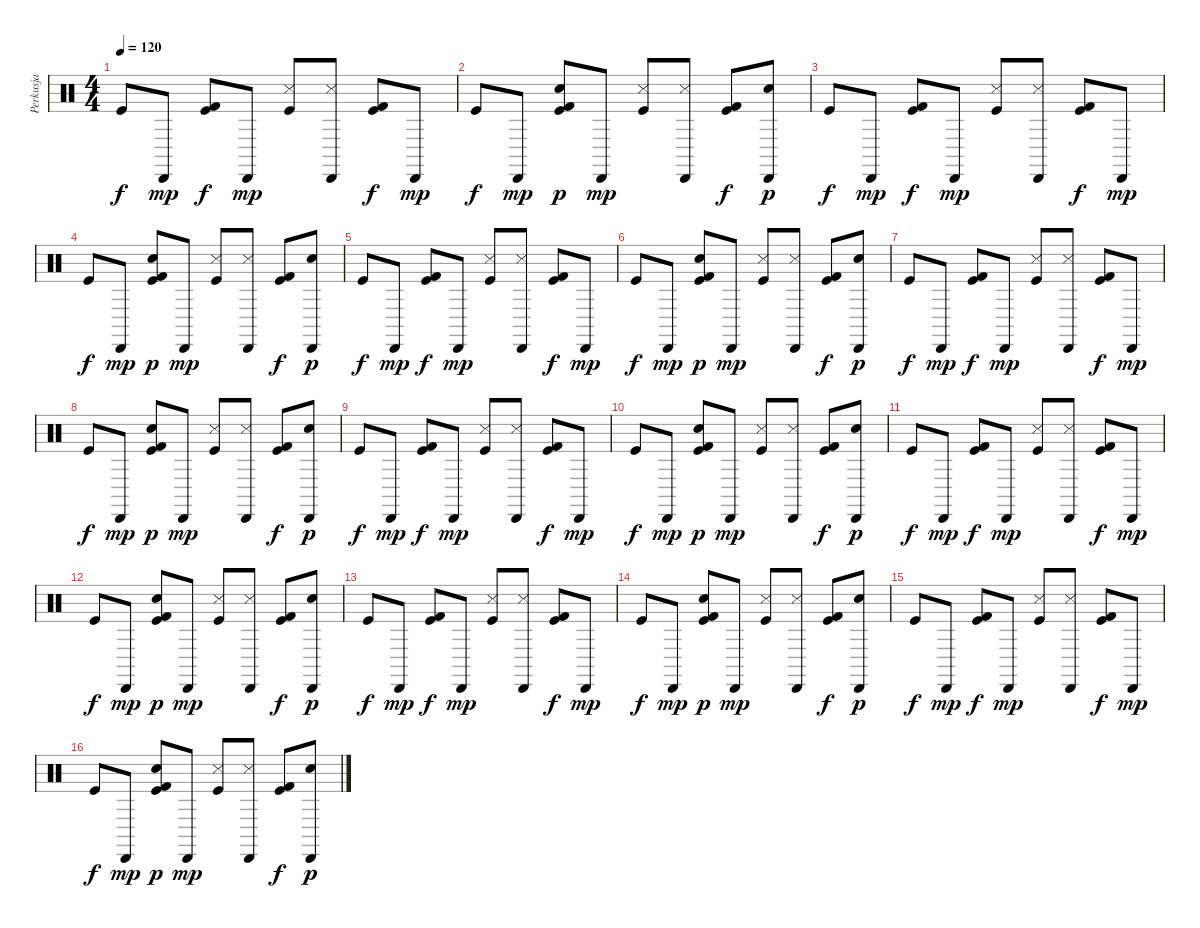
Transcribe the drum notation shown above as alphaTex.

\track ("Perkusja" "Perkusja") {instrument percussion}
\staff {score}
\articulation defaults
\ts (4 4)
\tempo 120
\clef neutral
\ks c "Kick (hit)".8{dy f} "Cabasa (hit)".8{dy mp}
("Kick (hit)" "Kick (hit) 2").8{dy f} "Cabasa (hit)".8{dy mp} ("Kick (hit)" "Metronome (hit)").8 ("Metronome (hit)" "Cabasa (hit)").8 ("Kick (hit)" "Kick (hit) 2").8{dy f} "Cabasa (hit)".8{dy mp} |
"Kick (hit)".8{dy f} "Cabasa (hit)".8{dy mp} ("Kick (hit)" "Kick (hit) 2" "Metronome (bell)").8{dy p} "Cabasa (hit)".8{dy mp} ("Kick (hit)" "Metronome (hit)").8 ("Metronome (hit)" "Cabasa (hit)").8 ("Kick (hit)" "Kick (hit) 2").8{dy f} ("Cabasa (hit)" "Metronome (bell)").8{dy p} |
"Kick (hit)".8{dy f} "Cabasa (hit)".8{dy mp} ("Kick (hit)" "Kick (hit) 2").8{dy f} "Cabasa (hit)".8{dy mp} ("Kick (hit)" "Metronome (hit)").8 ("Metronome (hit)" "Cabasa (hit)").8 ("Kick (hit)" "Kick (hit) 2").8{dy f} "Cabasa (hit)".8{dy mp} |
"Kick (hit)".8{dy f} "Cabasa (hit)".8{dy mp} ("Kick (hit)" "Kick (hit) 2" "Metronome (bell)").8{dy p} "Cabasa (hit)".8{dy mp} ("Kick (hit)" "Metronome (hit)").8 ("Metronome (hit)" "Cabasa (hit)").8 ("Kick (hit)" "Kick (hit) 2").8{dy f} ("Cabasa (hit)" "Metronome (bell)").8{dy p} |
"Kick (hit)".8{dy f} "Cabasa (hit)".8{dy mp} ("Kick (hit)" "Kick (hit) 2").8{dy f} "Cabasa (hit)".8{dy mp} ("Kick (hit)" "Metronome (hit)").8 ("Metronome (hit)" "Cabasa (hit)").8 ("Kick (hit)" "Kick (hit) 2").8{dy f} "Cabasa (hit)".8{dy mp} |
"Kick (hit)".8{dy f} "Cabasa (hit)".8{dy mp} ("Kick (hit)" "Kick (hit) 2" "Metronome (bell)").8{dy p} "Cabasa (hit)".8{dy mp} ("Kick (hit)" "Metronome (hit)").8 ("Metronome (hit)" "Cabasa (hit)").8 ("Kick (hit)" "Kick (hit) 2").8{dy f} ("Cabasa (hit)" "Metronome (bell)").8{dy p} |
"Kick (hit)".8{dy f} "Cabasa (hit)".8{dy mp} ("Kick (hit)" "Kick (hit) 2").8{dy f} "Cabasa (hit)".8{dy mp} ("Kick (hit)" "Metronome (hit)").8 ("Metronome (hit)" "Cabasa (hit)").8 ("Kick (hit)" "Kick (hit) 2").8{dy f} "Cabasa (hit)".8{dy mp} |
"Kick (hit)".8{dy f} "Cabasa (hit)".8{dy mp} ("Kick (hit)" "Kick (hit) 2" "Metronome (bell)").8{dy p} "Cabasa (hit)".8{dy mp} ("Kick (hit)" "Metronome (hit)").8 ("Metronome (hit)" "Cabasa (hit)").8 ("Kick (hit)" "Kick (hit) 2").8{dy f} ("Cabasa (hit)" "Metronome (bell)").8{dy p} |
"Kick (hit)".8{dy f} "Cabasa (hit)".8{dy mp} ("Kick (hit)" "Kick (hit) 2").8{dy f} "Cabasa (hit)".8{dy mp} ("Kick (hit)" "Metronome (hit)").8 ("Metronome (hit)" "Cabasa (hit)").8 ("Kick (hit)" "Kick (hit) 2").8{dy f} "Cabasa (hit)".8{dy mp} |
"Kick (hit)".8{dy f} "Cabasa (hit)".8{dy mp} ("Kick (hit)" "Kick (hit) 2" "Metronome (bell)").8{dy p} "Cabasa (hit)".8{dy mp} ("Kick (hit)" "Metronome (hit)").8 ("Metronome (hit)" "Cabasa (hit)").8 ("Kick (hit)" "Kick (hit) 2").8{dy f} ("Cabasa (hit)" "Metronome (bell)").8{dy p} |
"Kick (hit)".8{dy f} "Cabasa (hit)".8{dy mp} ("Kick (hit)" "Kick (hit) 2").8{dy f} "Cabasa (hit)".8{dy mp} ("Kick (hit)" "Metronome (hit)").8 ("Metronome (hit)" "Cabasa (hit)").8 ("Kick (hit)" "Kick (hit) 2").8{dy f} "Cabasa (hit)".8{dy mp} |
"Kick (hit)".8{dy f} "Cabasa (hit)".8{dy mp} ("Kick (hit)" "Kick (hit) 2" "Metronome (bell)").8{dy p} "Cabasa (hit)".8{dy mp} ("Kick (hit)" "Metronome (hit)").8 ("Metronome (hit)" "Cabasa (hit)").8 ("Kick (hit)" "Kick (hit) 2").8{dy f} ("Cabasa (hit)" "Metronome (bell)").8{dy p} |
"Kick (hit)".8{dy f} "Cabasa (hit)".8{dy mp} ("Kick (hit)" "Kick (hit) 2").8{dy f} "Cabasa (hit)".8{dy mp} ("Kick (hit)" "Metronome (hit)").8 ("Metronome (hit)" "Cabasa (hit)").8 ("Kick (hit)" "Kick (hit) 2").8{dy f} "Cabasa (hit)".8{dy mp} |
"Kick (hit)".8{dy f} "Cabasa (hit)".8{dy mp} ("Kick (hit)" "Kick (hit) 2" "Metronome (bell)").8{dy p} "Cabasa (hit)".8{dy mp} ("Kick (hit)" "Metronome (hit)").8 ("Metronome (hit)" "Cabasa (hit)").8 ("Kick (hit)" "Kick (hit) 2").8{dy f} ("Cabasa (hit)" "Metronome (bell)").8{dy p} |
"Kick (hit)".8{dy f} "Cabasa (hit)".8{dy mp} ("Kick (hit)" "Kick (hit) 2").8{dy f} "Cabasa (hit)".8{dy mp} ("Kick (hit)" "Metronome (hit)").8 ("Metronome (hit)" "Cabasa (hit)").8 ("Kick (hit)" "Kick (hit) 2").8{dy f} "Cabasa (hit)".8{dy mp} |
"Kick (hit)".8{dy f} "Cabasa (hit)".8{dy mp} ("Kick (hit)" "Kick (hit) 2" "Metronome (bell)").8{dy p} "Cabasa (hit)".8{dy mp} ("Kick (hit)" "Metronome (hit)").8 ("Metronome (hit)" "Cabasa (hit)").8 ("Kick (hit)" "Kick (hit) 2").8{dy f} ("Cabasa (hit)" "Metronome (bell)").8{dy p}
